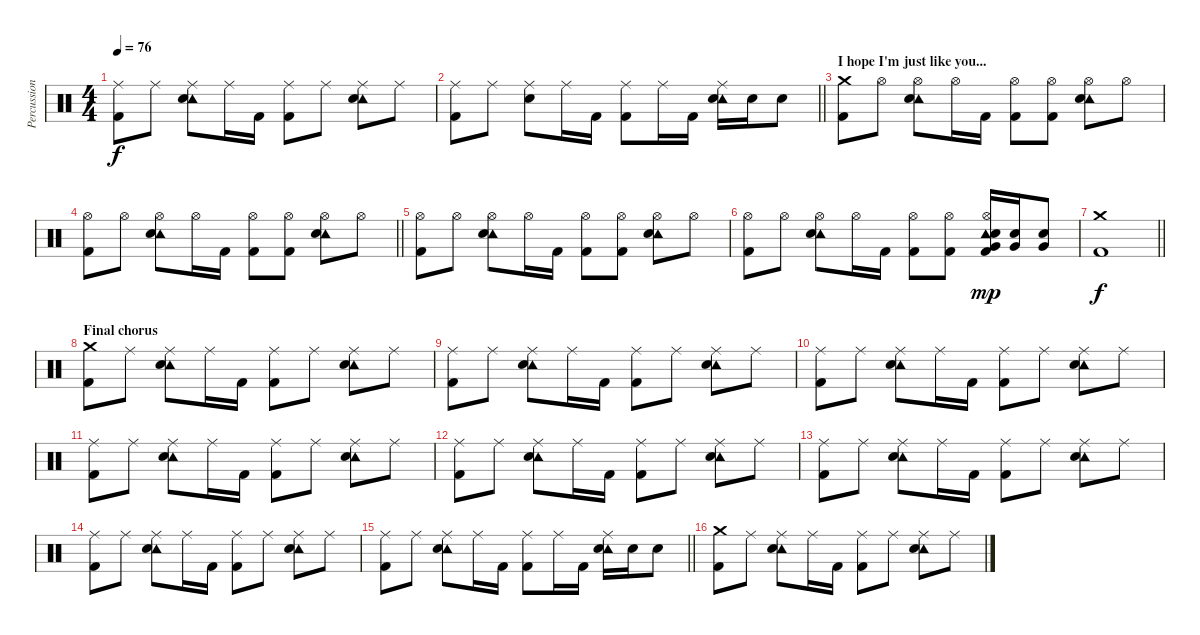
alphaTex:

\track ("Percussion" "Percussion") {instrument percussion}
\staff {score}
\articulation defaults
\ts (4 4)
\tempo 76
\clef neutral
\ks c
("Ride (middle)" "Kick (hit) 2").8{dy f} "Ride (middle)".8 ("Ride (middle)" "Tambourine (hit)" "Electric Snare (hit)").8 "Ride (middle)".16 "Kick (hit) 2".16 ("Ride (middle)" "Kick (hit) 2").8 "Ride (middle)".8 ("Ride (middle)" "Tambourine (hit)" "Electric Snare (hit)").8 "Ride (middle)".8 |
\barLineRight lightlight
("Ride (middle)" "Kick (hit) 2").8 "Ride (middle)".8 ("Ride (middle)" "Electric Snare (hit)").8 "Ride (middle)".16 "Kick (hit) 2".16 ("Ride (middle)" "Kick (hit) 2").8 "Ride (middle)".16 "Kick (hit) 2".16 ("Ride (middle)" "Tambourine (hit)" "Electric Snare (hit)").16 "Electric Snare (hit)".16 "Electric Snare (hit)".8 |
\section ("" "I hope I'm just like you...")
("Crash medium (hit)" "Kick (hit) 2").8 "Hi-Hat (open)".8 ("Hi-Hat (open)" "Tambourine (hit)" "Electric Snare (hit)").8 "Hi-Hat (open)".16 "Kick (hit) 2".16 ("Hi-Hat (open)" "Kick (hit) 2").8 ("Hi-Hat (open)" "Kick (hit) 2").8 ("Hi-Hat (open)" "Tambourine (hit)" "Electric Snare (hit)").8 "Hi-Hat (open)".8 |
\barLineRight lightlight
("Hi-Hat (open)" "Kick (hit) 2").8 "Hi-Hat (open)".8 ("Hi-Hat (open)" "Tambourine (hit)" "Electric Snare (hit)").8 "Hi-Hat (open)".16 "Kick (hit) 2".16 ("Hi-Hat (open)" "Kick (hit) 2").8 ("Hi-Hat (open)" "Kick (hit) 2").8 ("Hi-Hat (open)" "Tambourine (hit)" "Electric Snare (hit)").8 "Hi-Hat (open)".8 |
("Hi-Hat (open)" "Kick (hit) 2").8 "Hi-Hat (open)".8 ("Hi-Hat (open)" "Tambourine (hit)" "Electric Snare (hit)").8 "Hi-Hat (open)".16 "Kick (hit) 2".16 ("Hi-Hat (open)" "Kick (hit) 2").8 ("Hi-Hat (open)" "Kick (hit) 2").8 ("Hi-Hat (open)" "Tambourine (hit)" "Electric Snare (hit)").8 "Hi-Hat (open)".8 |
("Hi-Hat (open)" "Kick (hit) 2").8 "Hi-Hat (open)".8 ("Hi-Hat (open)" "Tambourine (hit)" "Electric Snare (hit)").8 "Hi-Hat (open)".16 "Kick (hit) 2".16 ("Hi-Hat (open)" "Kick (hit) 2").8 ("Hi-Hat (open)" "Kick (hit) 2").8 ("Hi-Hat (open)" "Tambourine (hit)" "Very Low Tom (hit)" "Electric Snare (hit)" "Kick (hit) 2").16{dy mp} ("Very Low Tom (hit)" "Electric Snare (hit)").16 ("Very Low Tom (hit)" "Electric Snare (hit)").8 |
\barLineRight lightlight
("Crash medium (hit)" "Kick (hit) 2").1{dy f} |
\section ("" "Final chorus")
("Crash medium (hit)" "Kick (hit) 2").8 "Ride (middle)".8 ("Ride (middle)" "Tambourine (hit)" "Electric Snare (hit)").8 "Ride (middle)".16 "Kick (hit) 2".16 ("Ride (middle)" "Kick (hit) 2").8 "Ride (middle)".8 ("Ride (middle)" "Tambourine (hit)" "Electric Snare (hit)").8 "Ride (middle)".8 |
("Ride (middle)" "Kick (hit) 2").8 "Ride (middle)".8 ("Ride (middle)" "Tambourine (hit)" "Electric Snare (hit)").8 "Ride (middle)".16 "Kick (hit) 2".16 ("Ride (middle)" "Kick (hit) 2").8 "Ride (middle)".8 ("Ride (middle)" "Tambourine (hit)" "Electric Snare (hit)").8 "Ride (middle)".8 |
("Ride (middle)" "Kick (hit) 2").8 "Ride (middle)".8 ("Ride (middle)" "Tambourine (hit)" "Electric Snare (hit)").8 "Ride (middle)".16 "Kick (hit) 2".16 ("Ride (middle)" "Kick (hit) 2").8 "Ride (middle)".8 ("Ride (middle)" "Tambourine (hit)" "Electric Snare (hit)").8 "Ride (middle)".8 |
("Ride (middle)" "Kick (hit) 2").8 "Ride (middle)".8 ("Ride (middle)" "Tambourine (hit)" "Electric Snare (hit)").8 "Ride (middle)".16 "Kick (hit) 2".16 ("Ride (middle)" "Kick (hit) 2").8 "Ride (middle)".8 ("Ride (middle)" "Tambourine (hit)" "Electric Snare (hit)").8 "Ride (middle)".8 |
("Ride (middle)" "Kick (hit) 2").8 "Ride (middle)".8 ("Ride (middle)" "Tambourine (hit)" "Electric Snare (hit)").8 "Ride (middle)".16 "Kick (hit) 2".16 ("Ride (middle)" "Kick (hit) 2").8 "Ride (middle)".8 ("Ride (middle)" "Tambourine (hit)" "Electric Snare (hit)").8 "Ride (middle)".8 |
("Ride (middle)" "Kick (hit) 2").8 "Ride (middle)".8 ("Ride (middle)" "Tambourine (hit)" "Electric Snare (hit)").8 "Ride (middle)".16 "Kick (hit) 2".16 ("Ride (middle)" "Kick (hit) 2").8 "Ride (middle)".8 ("Ride (middle)" "Tambourine (hit)" "Electric Snare (hit)").8 "Ride (middle)".8 |
("Ride (middle)" "Kick (hit) 2").8 "Ride (middle)".8 ("Ride (middle)" "Tambourine (hit)" "Electric Snare (hit)").8 "Ride (middle)".16 "Kick (hit) 2".16 ("Ride (middle)" "Kick (hit) 2").8 "Ride (middle)".8 ("Ride (middle)" "Tambourine (hit)" "Electric Snare (hit)").8 "Ride (middle)".8 |
\barLineRight lightlight
("Ride (middle)" "Kick (hit) 2").8 "Ride (middle)".8 ("Ride (middle)" "Tambourine (hit)" "Electric Snare (hit)").8 "Ride (middle)".16 "Kick (hit) 2".16 ("Ride (middle)" "Kick (hit) 2").8 "Ride (middle)".16 "Kick (hit) 2".16 ("Ride (middle)" "Tambourine (hit)" "Electric Snare (hit)").16 "Electric Snare (hit)".16 "Electric Snare (hit)".8 |
("Crash medium (hit)" "Kick (hit) 2").8 "Ride (middle)".8 ("Ride (middle)" "Tambourine (hit)" "Electric Snare (hit)").8 "Ride (middle)".16 "Kick (hit) 2".16 ("Ride (middle)" "Kick (hit) 2").8 "Ride (middle)".8 ("Ride (middle)" "Tambourine (hit)" "Electric Snare (hit)").8 "Ride (middle)".8
